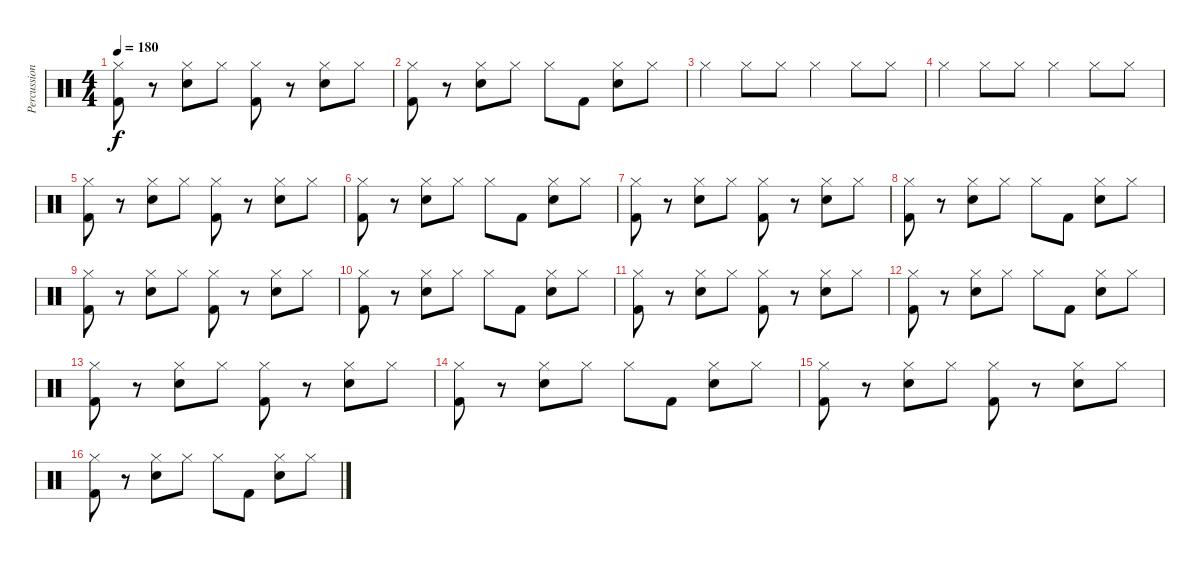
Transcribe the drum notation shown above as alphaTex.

\track ("Percussion" "Percussion") {instrument percussion}
\staff {score}
\articulation defaults
\ts (4 4)
\tempo 180
\clef neutral
\ks c
("Hi-Hat (closed)" "Kick (hit) 2").8{dy f} r.8 ("Hi-Hat (closed)" "Electric Snare (hit)").8 "Hi-Hat (closed)".8 ("Hi-Hat (closed)" "Kick (hit) 2").8 r.8 ("Hi-Hat (closed)" "Electric Snare (hit)").8 "Hi-Hat (closed)".8 |
("Hi-Hat (closed)" "Kick (hit) 2").8 r.8 ("Hi-Hat (closed)" "Electric Snare (hit)").8 "Hi-Hat (closed)".8 "Hi-Hat (closed)".8 "Kick (hit) 2".8 ("Hi-Hat (closed)" "Electric Snare (hit)").8 "Hi-Hat (closed)".8 |
"Hi-Hat (closed)".4 "Hi-Hat (closed)".8 "Hi-Hat (closed)".8 "Hi-Hat (closed)".4 "Hi-Hat (closed)".8 "Hi-Hat (closed)".8 |
"Hi-Hat (closed)".4 "Hi-Hat (closed)".8 "Hi-Hat (closed)".8 "Hi-Hat (closed)".4 "Hi-Hat (closed)".8 "Hi-Hat (closed)".8 |
("Hi-Hat (closed)" "Kick (hit) 2").8 r.8 ("Hi-Hat (closed)" "Electric Snare (hit)").8 "Hi-Hat (closed)".8 ("Hi-Hat (closed)" "Kick (hit) 2").8 r.8 ("Hi-Hat (closed)" "Electric Snare (hit)").8 "Hi-Hat (closed)".8 |
("Hi-Hat (closed)" "Kick (hit) 2").8 r.8 ("Hi-Hat (closed)" "Electric Snare (hit)").8 "Hi-Hat (closed)".8 "Hi-Hat (closed)".8 "Kick (hit) 2".8 ("Hi-Hat (closed)" "Electric Snare (hit)").8 "Hi-Hat (closed)".8 |
("Hi-Hat (closed)" "Kick (hit) 2").8 r.8 ("Hi-Hat (closed)" "Electric Snare (hit)").8 "Hi-Hat (closed)".8 ("Hi-Hat (closed)" "Kick (hit) 2").8 r.8 ("Hi-Hat (closed)" "Electric Snare (hit)").8 "Hi-Hat (closed)".8 |
("Hi-Hat (closed)" "Kick (hit) 2").8 r.8 ("Hi-Hat (closed)" "Electric Snare (hit)").8 "Hi-Hat (closed)".8 "Hi-Hat (closed)".8 "Kick (hit) 2".8 ("Hi-Hat (closed)" "Electric Snare (hit)").8 "Hi-Hat (closed)".8 |
("Hi-Hat (closed)" "Kick (hit) 2").8 r.8 ("Hi-Hat (closed)" "Electric Snare (hit)").8 "Hi-Hat (closed)".8 ("Hi-Hat (closed)" "Kick (hit) 2").8 r.8 ("Hi-Hat (closed)" "Electric Snare (hit)").8 "Hi-Hat (closed)".8 |
("Hi-Hat (closed)" "Kick (hit) 2").8 r.8 ("Hi-Hat (closed)" "Electric Snare (hit)").8 "Hi-Hat (closed)".8 "Hi-Hat (closed)".8 "Kick (hit) 2".8 ("Hi-Hat (closed)" "Electric Snare (hit)").8 "Hi-Hat (closed)".8 |
("Hi-Hat (closed)" "Kick (hit) 2").8 r.8 ("Hi-Hat (closed)" "Electric Snare (hit)").8 "Hi-Hat (closed)".8 ("Hi-Hat (closed)" "Kick (hit) 2").8 r.8 ("Hi-Hat (closed)" "Electric Snare (hit)").8 "Hi-Hat (closed)".8 |
("Hi-Hat (closed)" "Kick (hit) 2").8 r.8 ("Hi-Hat (closed)" "Electric Snare (hit)").8 "Hi-Hat (closed)".8 "Hi-Hat (closed)".8 "Kick (hit) 2".8 ("Hi-Hat (closed)" "Electric Snare (hit)").8 "Hi-Hat (closed)".8 |
("Hi-Hat (closed)" "Kick (hit) 2").8 r.8 ("Hi-Hat (closed)" "Electric Snare (hit)").8 "Hi-Hat (closed)".8 ("Hi-Hat (closed)" "Kick (hit) 2").8 r.8 ("Hi-Hat (closed)" "Electric Snare (hit)").8 "Hi-Hat (closed)".8 |
("Hi-Hat (closed)" "Kick (hit) 2").8 r.8 ("Hi-Hat (closed)" "Electric Snare (hit)").8 "Hi-Hat (closed)".8 "Hi-Hat (closed)".8 "Kick (hit) 2".8 ("Hi-Hat (closed)" "Electric Snare (hit)").8 "Hi-Hat (closed)".8 |
("Hi-Hat (closed)" "Kick (hit) 2").8 r.8 ("Hi-Hat (closed)" "Electric Snare (hit)").8 "Hi-Hat (closed)".8 ("Hi-Hat (closed)" "Kick (hit) 2").8 r.8 ("Hi-Hat (closed)" "Electric Snare (hit)").8 "Hi-Hat (closed)".8 |
("Hi-Hat (closed)" "Kick (hit) 2").8 r.8 ("Hi-Hat (closed)" "Electric Snare (hit)").8 "Hi-Hat (closed)".8 "Hi-Hat (closed)".8 "Kick (hit) 2".8 ("Hi-Hat (closed)" "Electric Snare (hit)").8 "Hi-Hat (closed)".8
